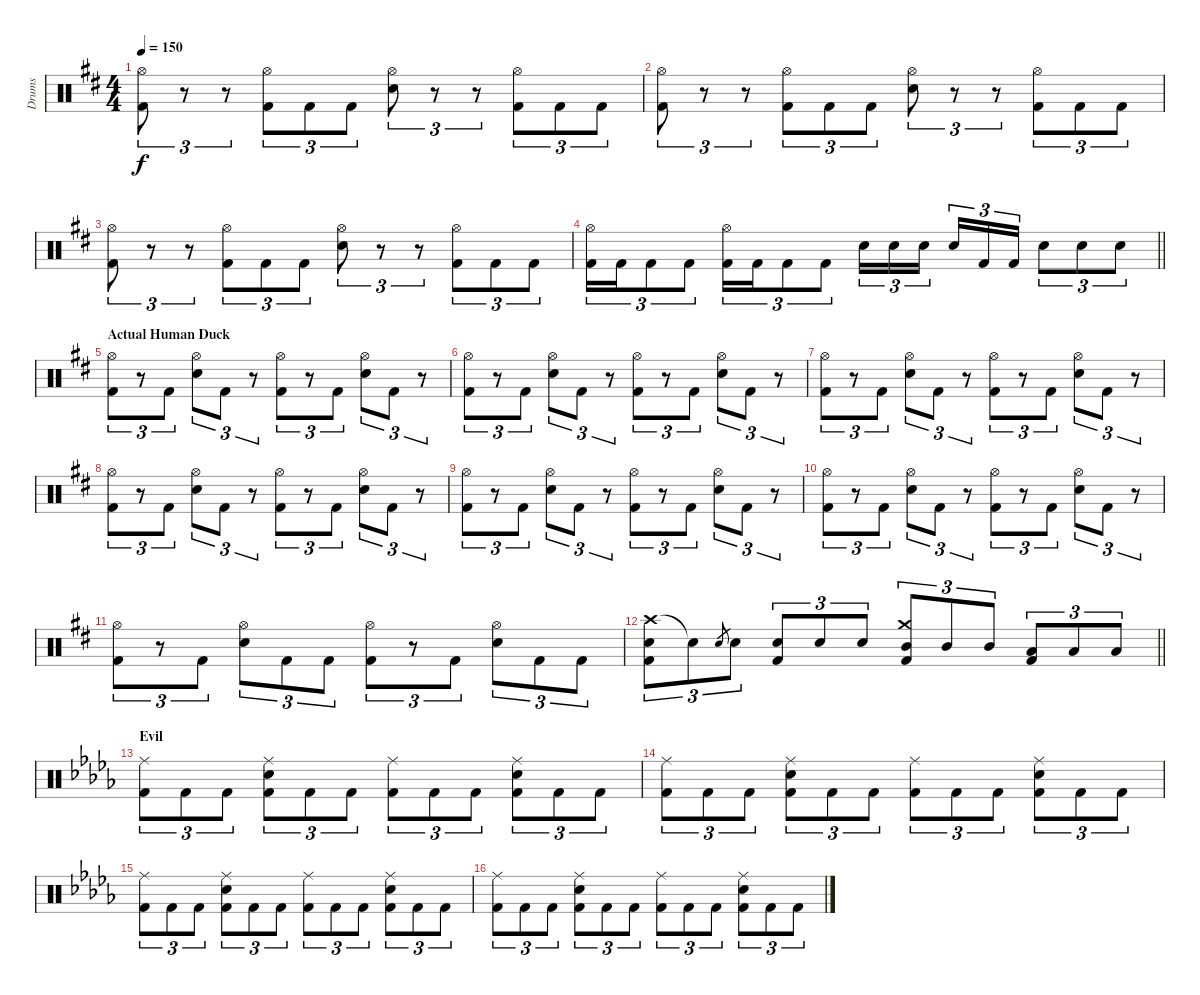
\track ("Drums" "Drums") {instrument percussion}
\staff {score}
\articulation defaults
\ts (4 4)
\tempo 150
\clef neutral
\ks bminor
("Hi-Hat (open)" "Kick (hit) 2").8{tu (3 2) dy f} r.8{tu (3 2)} r.8{tu (3 2)} ("Hi-Hat (open)" "Kick (hit) 2").8{tu (3 2)} "Kick (hit) 2".8{tu (3 2)} "Kick (hit) 2".8{tu (3 2)} ("Hi-Hat (open)" "Snare (hit) 2").8{tu (3 2)} r.8{tu (3 2)} r.8{tu (3 2)} ("Hi-Hat (open)" "Kick (hit) 2").8{tu (3 2)} "Kick (hit) 2".8{tu (3 2)} "Kick (hit) 2".8{tu (3 2)} |
("Hi-Hat (open)" "Kick (hit) 2").8{tu (3 2)} r.8{tu (3 2)} r.8{tu (3 2)} ("Hi-Hat (open)" "Kick (hit) 2").8{tu (3 2)} "Kick (hit) 2".8{tu (3 2)} "Kick (hit) 2".8{tu (3 2)} ("Hi-Hat (open)" "Snare (hit) 2").8{tu (3 2)} r.8{tu (3 2)} r.8{tu (3 2)} ("Hi-Hat (open)" "Kick (hit) 2").8{tu (3 2)} "Kick (hit) 2".8{tu (3 2)} "Kick (hit) 2".8{tu (3 2)} |
("Hi-Hat (open)" "Kick (hit) 2").8{tu (3 2)} r.8{tu (3 2)} r.8{tu (3 2)} ("Hi-Hat (open)" "Kick (hit) 2").8{tu (3 2)} "Kick (hit) 2".8{tu (3 2)} "Kick (hit) 2".8{tu (3 2)} ("Hi-Hat (open)" "Snare (hit) 2").8{tu (3 2)} r.8{tu (3 2)} r.8{tu (3 2)} ("Hi-Hat (open)" "Kick (hit) 2").8{tu (3 2)} "Kick (hit) 2".8{tu (3 2)} "Kick (hit) 2".8{tu (3 2)} |
\barLineRight lightlight
("Hi-Hat (open)" "Kick (hit) 2").16{tu (3 2)} "Kick (hit) 2".16{tu (3 2)} "Kick (hit) 2".8{tu (3 2)} "Kick (hit) 2".8{tu (3 2)} ("Hi-Hat (open)" "Kick (hit) 2").16{tu (3 2)} "Kick (hit) 2".16{tu (3 2)} "Kick (hit) 2".8{tu (3 2)} "Kick (hit) 2".8{tu (3 2)} "Snare (hit) 2".16{tu (3 2)} "Snare (hit) 2".16{tu (3 2)} "Snare (hit) 2".16{tu (3 2) beam splitsecondary} "Snare (hit) 2".16{tu (3 2)} "Kick (hit) 2".16{tu (3 2)} "Kick (hit) 2".16{tu (3 2)} "Snare (hit) 2".8{tu (3 2)} "Snare (hit) 2".8{tu (3 2)} "Snare (hit) 2".8{tu (3 2)} |
\section ("" "Actual Human Duck")
("Hi-Hat (open)" "Kick (hit) 2").8{tu (3 2)} r.8{tu (3 2)} "Kick (hit) 2".8{tu (3 2)} ("Hi-Hat (open)" "Snare (hit) 2").8{tu (3 2)} "Kick (hit) 2".8{tu (3 2)} r.8{tu (3 2)} ("Hi-Hat (open)" "Kick (hit) 2").8{tu (3 2)} r.8{tu (3 2)} "Kick (hit) 2".8{tu (3 2)} ("Hi-Hat (open)" "Snare (hit) 2").8{tu (3 2)} "Kick (hit) 2".8{tu (3 2)} r.8{tu (3 2)} |
("Hi-Hat (open)" "Kick (hit) 2").8{tu (3 2)} r.8{tu (3 2)} "Kick (hit) 2".8{tu (3 2)} ("Hi-Hat (open)" "Snare (hit) 2").8{tu (3 2)} "Kick (hit) 2".8{tu (3 2)} r.8{tu (3 2)} ("Hi-Hat (open)" "Kick (hit) 2").8{tu (3 2)} r.8{tu (3 2)} "Kick (hit) 2".8{tu (3 2)} ("Hi-Hat (open)" "Snare (hit) 2").8{tu (3 2)} "Kick (hit) 2".8{tu (3 2)} r.8{tu (3 2)} |
("Hi-Hat (open)" "Kick (hit) 2").8{tu (3 2)} r.8{tu (3 2)} "Kick (hit) 2".8{tu (3 2)} ("Hi-Hat (open)" "Snare (hit) 2").8{tu (3 2)} "Kick (hit) 2".8{tu (3 2)} r.8{tu (3 2)} ("Hi-Hat (open)" "Kick (hit) 2").8{tu (3 2)} r.8{tu (3 2)} "Kick (hit) 2".8{tu (3 2)} ("Hi-Hat (open)" "Snare (hit) 2").8{tu (3 2)} "Kick (hit) 2".8{tu (3 2)} r.8{tu (3 2)} |
("Hi-Hat (open)" "Kick (hit) 2").8{tu (3 2)} r.8{tu (3 2)} "Kick (hit) 2".8{tu (3 2)} ("Hi-Hat (open)" "Snare (hit) 2").8{tu (3 2)} "Kick (hit) 2".8{tu (3 2)} r.8{tu (3 2)} ("Hi-Hat (open)" "Kick (hit) 2").8{tu (3 2)} r.8{tu (3 2)} "Kick (hit) 2".8{tu (3 2)} ("Hi-Hat (open)" "Snare (hit) 2").8{tu (3 2)} "Kick (hit) 2".8{tu (3 2)} r.8{tu (3 2)} |
("Hi-Hat (open)" "Kick (hit) 2").8{tu (3 2)} r.8{tu (3 2)} "Kick (hit) 2".8{tu (3 2)} ("Hi-Hat (open)" "Snare (hit) 2").8{tu (3 2)} "Kick (hit) 2".8{tu (3 2)} r.8{tu (3 2)} ("Hi-Hat (open)" "Kick (hit) 2").8{tu (3 2)} r.8{tu (3 2)} "Kick (hit) 2".8{tu (3 2)} ("Hi-Hat (open)" "Snare (hit) 2").8{tu (3 2)} "Kick (hit) 2".8{tu (3 2)} r.8{tu (3 2)} |
("Hi-Hat (open)" "Kick (hit) 2").8{tu (3 2)} r.8{tu (3 2)} "Kick (hit) 2".8{tu (3 2)} ("Hi-Hat (open)" "Snare (hit) 2").8{tu (3 2)} "Kick (hit) 2".8{tu (3 2)} r.8{tu (3 2)} ("Hi-Hat (open)" "Kick (hit) 2").8{tu (3 2)} r.8{tu (3 2)} "Kick (hit) 2".8{tu (3 2)} ("Hi-Hat (open)" "Snare (hit) 2").8{tu (3 2)} "Kick (hit) 2".8{tu (3 2)} r.8{tu (3 2)} |
("Hi-Hat (open)" "Kick (hit) 2").8{tu (3 2)} r.8{tu (3 2)} "Kick (hit) 2".8{tu (3 2)} ("Hi-Hat (open)" "Snare (hit) 2").8{tu (3 2)} "Kick (hit) 2".8{tu (3 2)} "Kick (hit) 2".8{tu (3 2)} ("Hi-Hat (open)" "Kick (hit) 2").8{tu (3 2)} r.8{tu (3 2)} "Kick (hit) 2".8{tu (3 2)} ("Hi-Hat (open)" "Snare (hit) 2").8{tu (3 2)} "Kick (hit) 2".8{tu (3 2)} "Kick (hit) 2".8{tu (3 2)} |
\barLineRight lightlight
("Crash high (hit)" "Snare (hit) 2" "Kick (hit) 2").8{tu (3 2)} "Snare (hit) 2"{t}.8{tu (3 2)} "Snare (hit) 2".8{gr} "Snare (hit) 2".8{tu (3 2)} ("Snare (hit) 2" "Kick (hit) 2").8{tu (3 2)} "Snare (hit) 2".8{tu (3 2)} "Snare (hit) 2".8{tu (3 2)} ("Crash medium (hit)" "Mid Tom (hit)" "Kick (hit) 2").8{tu (3 2)} "Mid Tom (hit)".8{tu (3 2)} "Mid Tom (hit)".8{tu (3 2)} ("Low Tom (hit)" "Kick (hit) 2").8{tu (3 2)} "Low Tom (hit)".8{tu (3 2)} "Low Tom (hit)".8{tu (3 2)} |
\section ("" "Evil")
\ks bbminor
("Ride (middle)" "Kick (hit) 2").8{tu (3 2)} "Kick (hit) 2".8{tu (3 2)} "Kick (hit) 2".8{tu (3 2)} ("Ride (middle)" "Snare (hit) 2" "Kick (hit) 2").8{tu (3 2)} "Kick (hit) 2".8{tu (3 2)} "Kick (hit) 2".8{tu (3 2)} ("Ride (middle)" "Kick (hit) 2").8{tu (3 2)} "Kick (hit) 2".8{tu (3 2)} "Kick (hit) 2".8{tu (3 2)} ("Ride (middle)" "Snare (hit) 2" "Kick (hit) 2").8{tu (3 2)} "Kick (hit) 2".8{tu (3 2)} "Kick (hit) 2".8{tu (3 2)} |
("Ride (middle)" "Kick (hit) 2").8{tu (3 2)} "Kick (hit) 2".8{tu (3 2)} "Kick (hit) 2".8{tu (3 2)} ("Ride (middle)" "Snare (hit) 2" "Kick (hit) 2").8{tu (3 2)} "Kick (hit) 2".8{tu (3 2)} "Kick (hit) 2".8{tu (3 2)} ("Ride (middle)" "Kick (hit) 2").8{tu (3 2)} "Kick (hit) 2".8{tu (3 2)} "Kick (hit) 2".8{tu (3 2)} ("Ride (middle)" "Snare (hit) 2" "Kick (hit) 2").8{tu (3 2)} "Kick (hit) 2".8{tu (3 2)} "Kick (hit) 2".8{tu (3 2)} |
("Ride (middle)" "Kick (hit) 2").8{tu (3 2)} "Kick (hit) 2".8{tu (3 2)} "Kick (hit) 2".8{tu (3 2)} ("Ride (middle)" "Snare (hit) 2" "Kick (hit) 2").8{tu (3 2)} "Kick (hit) 2".8{tu (3 2)} "Kick (hit) 2".8{tu (3 2)} ("Ride (middle)" "Kick (hit) 2").8{tu (3 2)} "Kick (hit) 2".8{tu (3 2)} "Kick (hit) 2".8{tu (3 2)} ("Ride (middle)" "Snare (hit) 2" "Kick (hit) 2").8{tu (3 2)} "Kick (hit) 2".8{tu (3 2)} "Kick (hit) 2".8{tu (3 2)} |
("Ride (middle)" "Kick (hit) 2").8{tu (3 2)} "Kick (hit) 2".8{tu (3 2)} "Kick (hit) 2".8{tu (3 2)} ("Ride (middle)" "Snare (hit) 2" "Kick (hit) 2").8{tu (3 2)} "Kick (hit) 2".8{tu (3 2)} "Kick (hit) 2".8{tu (3 2)} ("Ride (middle)" "Kick (hit) 2").8{tu (3 2)} "Kick (hit) 2".8{tu (3 2)} "Kick (hit) 2".8{tu (3 2)} ("Ride (middle)" "Snare (hit) 2" "Kick (hit) 2").8{tu (3 2)} "Kick (hit) 2".8{tu (3 2)} "Kick (hit) 2".8{tu (3 2)}
